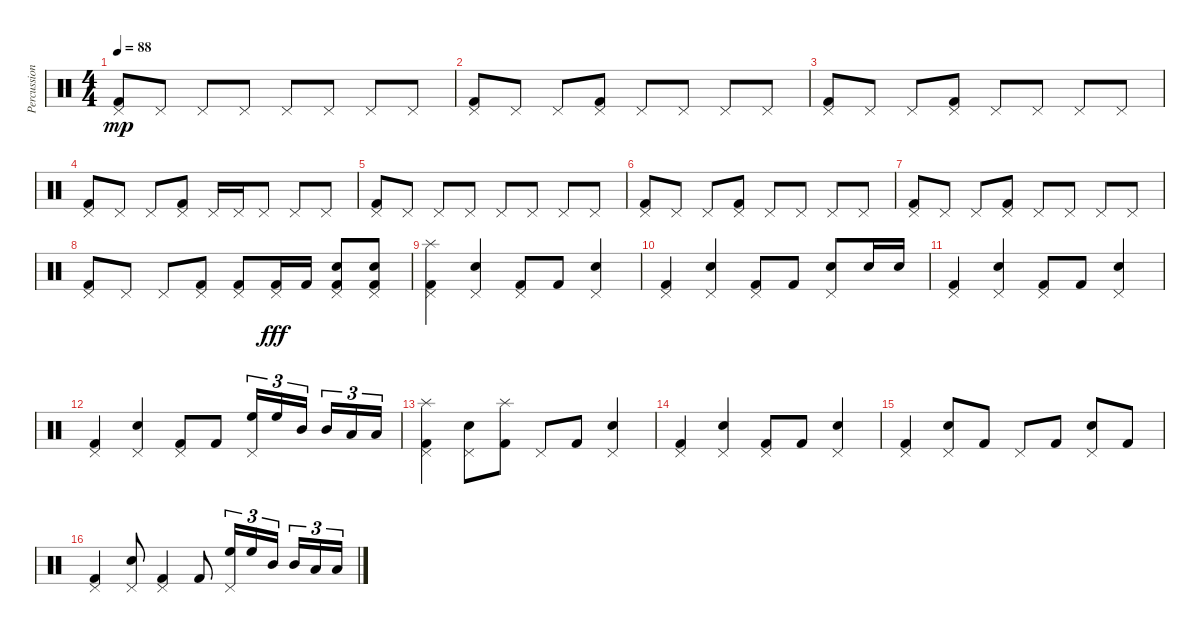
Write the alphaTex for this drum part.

\track ("Percussion" "Percussion") {instrument percussion}
\staff {score}
\articulation defaults
\ts (4 4)
\tempo 88
\clef neutral
\ks c
("Pedal Hi-Hat (hit)" "Kick (hit) 2").8{dy mp} "Pedal Hi-Hat (hit)".8 "Pedal Hi-Hat (hit)".8 "Pedal Hi-Hat (hit)".8 "Pedal Hi-Hat (hit)".8 "Pedal Hi-Hat (hit)".8 "Pedal Hi-Hat (hit)".8 "Pedal Hi-Hat (hit)".8 |
("Pedal Hi-Hat (hit)" "Kick (hit) 2").8 "Pedal Hi-Hat (hit)".8 "Pedal Hi-Hat (hit)".8 ("Pedal Hi-Hat (hit)" "Kick (hit) 2").8 "Pedal Hi-Hat (hit)".8 "Pedal Hi-Hat (hit)".8 "Pedal Hi-Hat (hit)".8 "Pedal Hi-Hat (hit)".8 |
("Pedal Hi-Hat (hit)" "Kick (hit) 2").8 "Pedal Hi-Hat (hit)".8 "Pedal Hi-Hat (hit)".8 ("Pedal Hi-Hat (hit)" "Kick (hit) 2").8 "Pedal Hi-Hat (hit)".8 "Pedal Hi-Hat (hit)".8 "Pedal Hi-Hat (hit)".8 "Pedal Hi-Hat (hit)".8 |
("Pedal Hi-Hat (hit)" "Kick (hit) 2").8 "Pedal Hi-Hat (hit)".8 "Pedal Hi-Hat (hit)".8 ("Pedal Hi-Hat (hit)" "Kick (hit) 2").8 "Pedal Hi-Hat (hit)".16 "Pedal Hi-Hat (hit)".16 "Pedal Hi-Hat (hit)".8 "Pedal Hi-Hat (hit)".8 "Pedal Hi-Hat (hit)".8 |
("Pedal Hi-Hat (hit)" "Kick (hit) 2").8 "Pedal Hi-Hat (hit)".8 "Pedal Hi-Hat (hit)".8 "Pedal Hi-Hat (hit)".8 "Pedal Hi-Hat (hit)".8 "Pedal Hi-Hat (hit)".8 "Pedal Hi-Hat (hit)".8 "Pedal Hi-Hat (hit)".8 |
("Pedal Hi-Hat (hit)" "Kick (hit) 2").8 "Pedal Hi-Hat (hit)".8 "Pedal Hi-Hat (hit)".8 ("Pedal Hi-Hat (hit)" "Kick (hit) 2").8 "Pedal Hi-Hat (hit)".8 "Pedal Hi-Hat (hit)".8 "Pedal Hi-Hat (hit)".8 "Pedal Hi-Hat (hit)".8 |
("Pedal Hi-Hat (hit)" "Kick (hit) 2").8 "Pedal Hi-Hat (hit)".8 "Pedal Hi-Hat (hit)".8 ("Pedal Hi-Hat (hit)" "Kick (hit) 2").8 "Pedal Hi-Hat (hit)".8 "Pedal Hi-Hat (hit)".8 "Pedal Hi-Hat (hit)".8 "Pedal Hi-Hat (hit)".8 |
("Pedal Hi-Hat (hit)" "Kick (hit) 2").8 "Pedal Hi-Hat (hit)".8 "Pedal Hi-Hat (hit)".8 ("Pedal Hi-Hat (hit)" "Kick (hit) 2").8 ("Pedal Hi-Hat (hit)" "Kick (hit) 2").8 ("Pedal Hi-Hat (hit)" "Kick (hit) 2").16{dy fff} "Kick (hit) 2".16 ("Pedal Hi-Hat (hit)" "Kick (hit) 2" "Snare (hit) 2").8 ("Pedal Hi-Hat (hit)" "Kick (hit) 2" "Snare (hit) 2").8 |
("Pedal Hi-Hat (hit)" "Splash (hit)" "Kick (hit) 2").4 ("Pedal Hi-Hat (hit)" "Snare (hit) 2").4 ("Pedal Hi-Hat (hit)" "Kick (hit) 2").8 "Kick (hit) 2".8 ("Pedal Hi-Hat (hit)" "Snare (hit) 2").4 |
("Pedal Hi-Hat (hit)" "Kick (hit) 2").4 ("Pedal Hi-Hat (hit)" "Snare (hit) 2").4 ("Pedal Hi-Hat (hit)" "Kick (hit) 2").8 "Kick (hit) 2".8 ("Pedal Hi-Hat (hit)" "Snare (hit) 2").8 "Snare (hit) 2".16 "Snare (hit) 2".16 |
("Pedal Hi-Hat (hit)" "Kick (hit) 2").4 ("Pedal Hi-Hat (hit)" "Snare (hit) 2").4 ("Pedal Hi-Hat (hit)" "Kick (hit) 2").8 "Kick (hit) 2".8 ("Pedal Hi-Hat (hit)" "Snare (hit) 2").4 |
("Pedal Hi-Hat (hit)" "Kick (hit) 2").4 ("Pedal Hi-Hat (hit)" "Snare (hit) 2").4 ("Pedal Hi-Hat (hit)" "Kick (hit) 2").8 "Kick (hit) 2".8 ("Pedal Hi-Hat (hit)" "High Floor Tom (hit)").16{tu (3 2)} "High Floor Tom (hit)".16{tu (3 2)} "Mid Tom (hit)".16{tu (3 2) beam splitsecondary} "Mid Tom (hit)".16{tu (3 2)} "Low Tom (hit)".16{tu (3 2)} "Low Tom (hit)".16{tu (3 2)} |
("Pedal Hi-Hat (hit)" "Splash (hit)" "Kick (hit) 2").4 ("Pedal Hi-Hat (hit)" "Snare (hit) 2").8 ("Splash (hit)" "Kick (hit) 2").8 "Pedal Hi-Hat (hit)".8 "Kick (hit) 2".8 ("Pedal Hi-Hat (hit)" "Snare (hit) 2").4 |
("Pedal Hi-Hat (hit)" "Kick (hit) 2").4 ("Pedal Hi-Hat (hit)" "Snare (hit) 2").4 ("Pedal Hi-Hat (hit)" "Kick (hit) 2").8 "Kick (hit) 2".8 ("Pedal Hi-Hat (hit)" "Snare (hit) 2").4 |
("Pedal Hi-Hat (hit)" "Kick (hit) 2").4 ("Pedal Hi-Hat (hit)" "Snare (hit) 2").8 "Kick (hit) 2".8 "Pedal Hi-Hat (hit)".8 "Kick (hit) 2".8 ("Pedal Hi-Hat (hit)" "Snare (hit) 2").8 "Kick (hit) 2".8 |
("Pedal Hi-Hat (hit)" "Kick (hit) 2").4 ("Pedal Hi-Hat (hit)" "Snare (hit) 2").8 ("Pedal Hi-Hat (hit)" "Kick (hit) 2").4 "Kick (hit) 2".8 ("Pedal Hi-Hat (hit)" "High Floor Tom (hit)").16{tu (3 2)} "High Floor Tom (hit)".16{tu (3 2)} "Mid Tom (hit)".16{tu (3 2) beam splitsecondary} "Mid Tom (hit)".16{tu (3 2)} "Low Tom (hit)".16{tu (3 2)} "Low Tom (hit)".16{tu (3 2)}
